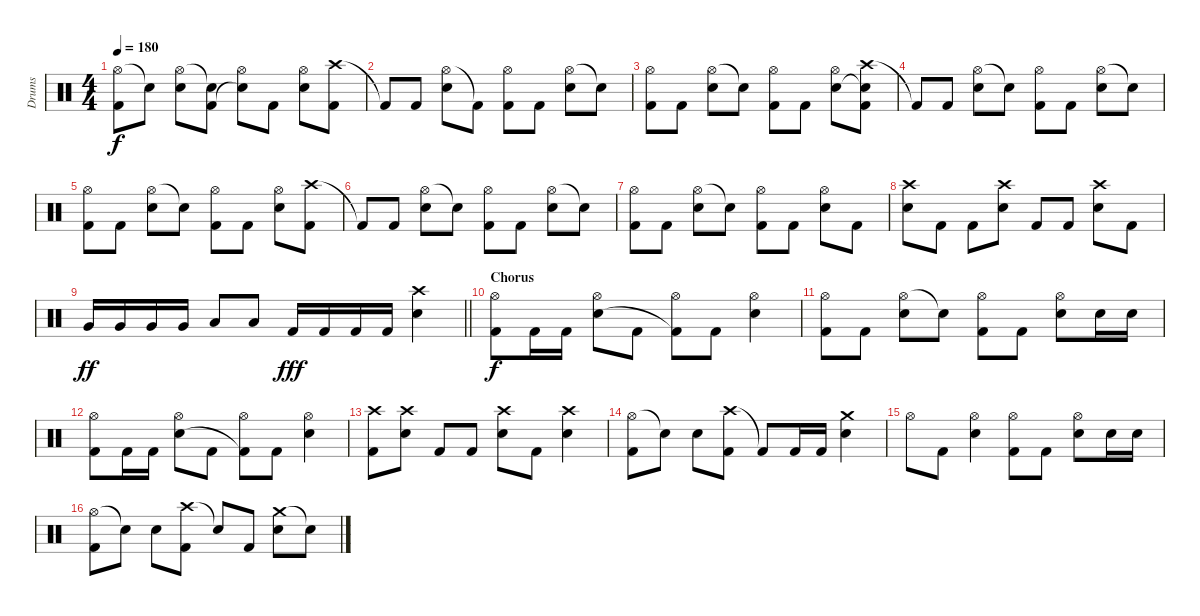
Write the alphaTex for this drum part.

\track ("Drums" "Drums") {instrument percussion}
\staff {score}
\articulation defaults
\ts (4 4)
\tempo 180
\clef neutral
\ks c
("Hi-Hat (open)" "Kick (hit) 2").8{dy f} "Snare (hit)"{t}.8 ("Hi-Hat (open)" "Electric Snare (hit)").8 ("Snare (hit)"{t} "Kick (hit) 2").8 ("Hi-Hat (open)" "Snare (hit)"{t}).8 "Kick (hit) 2".8 ("Hi-Hat (open)" "Electric Snare (hit)").8 ("Crash high (hit)" "Kick (hit) 2").8 |
"Kick (hit) 2"{t}.8 "Kick (hit) 2".8 ("Hi-Hat (open)" "Electric Snare (hit)").8 "Kick (hit) 2"{t}.8 ("Hi-Hat (open)" "Kick (hit) 2").8 "Kick (hit) 2".8 ("Hi-Hat (open)" "Electric Snare (hit)").8 "Snare (hit)"{t}.8 |
("Hi-Hat (open)" "Kick (hit) 2").8 "Kick (hit) 2".8 ("Hi-Hat (open)" "Electric Snare (hit)").8 "Snare (hit)"{t}.8 ("Hi-Hat (open)" "Kick (hit) 2").8 "Kick (hit) 2".8 ("Hi-Hat (open)" "Electric Snare (hit)").8 ("Crash high (hit)" "Snare (hit)"{t} "Kick (hit) 2").8 |
"Kick (hit) 2"{t}.8 "Kick (hit) 2".8 ("Hi-Hat (open)" "Electric Snare (hit)").8 "Snare (hit)"{t}.8 ("Hi-Hat (open)" "Kick (hit) 2").8 "Kick (hit) 2".8 ("Hi-Hat (open)" "Electric Snare (hit)").8 "Snare (hit)"{t}.8 |
("Hi-Hat (open)" "Kick (hit) 2").8 "Kick (hit) 2".8 ("Hi-Hat (open)" "Electric Snare (hit)").8 "Snare (hit)"{t}.8 ("Hi-Hat (open)" "Kick (hit) 2").8 "Kick (hit) 2".8 ("Hi-Hat (open)" "Electric Snare (hit)").8 ("Crash high (hit)" "Kick (hit) 2").8 |
"Kick (hit) 2"{t}.8 "Kick (hit) 2".8 ("Hi-Hat (open)" "Electric Snare (hit)").8 "Snare (hit)"{t}.8 ("Hi-Hat (open)" "Kick (hit) 2").8 "Kick (hit) 2".8 ("Hi-Hat (open)" "Electric Snare (hit)").8 "Snare (hit)"{t}.8 |
("Hi-Hat (open)" "Kick (hit) 2").8 "Kick (hit) 2".8 ("Hi-Hat (open)" "Electric Snare (hit)").8 "Snare (hit)"{t}.8 ("Hi-Hat (open)" "Kick (hit) 2").8 "Kick (hit) 2".8 ("Hi-Hat (open)" "Electric Snare (hit)").8 "Kick (hit) 2".8 |
("Crash high (hit)" "Electric Snare (hit)").8 "Kick (hit) 2".8 "Kick (hit) 2".8 ("Crash high (hit)" "Electric Snare (hit)").8 "Kick (hit) 2".8 "Kick (hit) 2".8 ("Crash high (hit)" "Electric Snare (hit)").8 "Kick (hit) 2".8 |
\barLineRight lightlight "Very Low Tom (hit)".16{dy ff} "Very Low Tom (hit)".16 "Very Low Tom (hit)".16 "Very Low Tom (hit)".16 "Low Floor Tom (hit)".8 "Low Floor Tom (hit)".8 "Kick (hit) 2".16{dy fff} "Kick (hit) 2".16 "Kick (hit) 2".16 "Kick (hit) 2".16
("Crash high (hit)" "Electric Snare (hit)").4 |
\section ("" "Chorus")
("Hi-Hat (open)" "Kick (hit) 2").8{dy f} "Kick (hit) 2".16 "Kick (hit) 2".16 ("Hi-Hat (open)" "Electric Snare (hit)").8 "Kick (hit) 2".8 ("Hi-Hat (open)" "Kick (hit) 2"{t}).8 "Kick (hit) 2".8 ("Hi-Hat (open)" "Electric Snare (hit)").4 |
("Hi-Hat (open)" "Kick (hit) 2").8 "Kick (hit) 2".8 ("Hi-Hat (open)" "Electric Snare (hit)").8 "Snare (hit)"{t}.8 ("Hi-Hat (open)" "Kick (hit) 2").8 "Kick (hit) 2".8 ("Hi-Hat (open)" "Electric Snare (hit)").8 "Electric Snare (hit)".16 "Electric Snare (hit)".16 |
("Hi-Hat (open)" "Kick (hit) 2").8 "Kick (hit) 2".16 "Kick (hit) 2".16 ("Hi-Hat (open)" "Electric Snare (hit)").8 "Kick (hit) 2".8 ("Hi-Hat (open)" "Kick (hit) 2"{t}).8 "Kick (hit) 2".8 ("Hi-Hat (open)" "Electric Snare (hit)").4 |
("Crash high (hit)" "Kick (hit) 2").8 ("Crash high (hit)" "Electric Snare (hit)").8 "Kick (hit) 2".8 "Kick (hit) 2".8 ("Crash high (hit)" "Electric Snare (hit)").8 "Kick (hit) 2".8 ("Crash high (hit)" "Electric Snare (hit)").4 |
("Hi-Hat (open)" "Kick (hit) 2").8 "Snare (hit)"{t}.8 "Electric Snare (hit)".8 ("Crash high (hit)" "Kick (hit) 2").8 "Kick (hit) 2"{t}.8 "Kick (hit) 2".16 "Kick (hit) 2".16 ("Crash medium (hit)" "Electric Snare (hit)").4 |
"Hi-Hat (open)".8 "Kick (hit) 2".8 ("Hi-Hat (open)" "Electric Snare (hit)").4 ("Hi-Hat (open)" "Kick (hit) 2").8 "Kick (hit) 2".8 ("Hi-Hat (open)" "Electric Snare (hit)").8 "Electric Snare (hit)".16 "Electric Snare (hit)".16 |
("Hi-Hat (open)" "Kick (hit) 2").8 "Snare (hit)"{t}.8 "Electric Snare (hit)".8 ("Crash high (hit)" "Kick (hit) 2").8 "Snare (hit)"{t}.8 "Kick (hit) 2".8 ("Crash medium (hit)" "Electric Snare (hit)").8 "Snare (hit)"{t}.8
